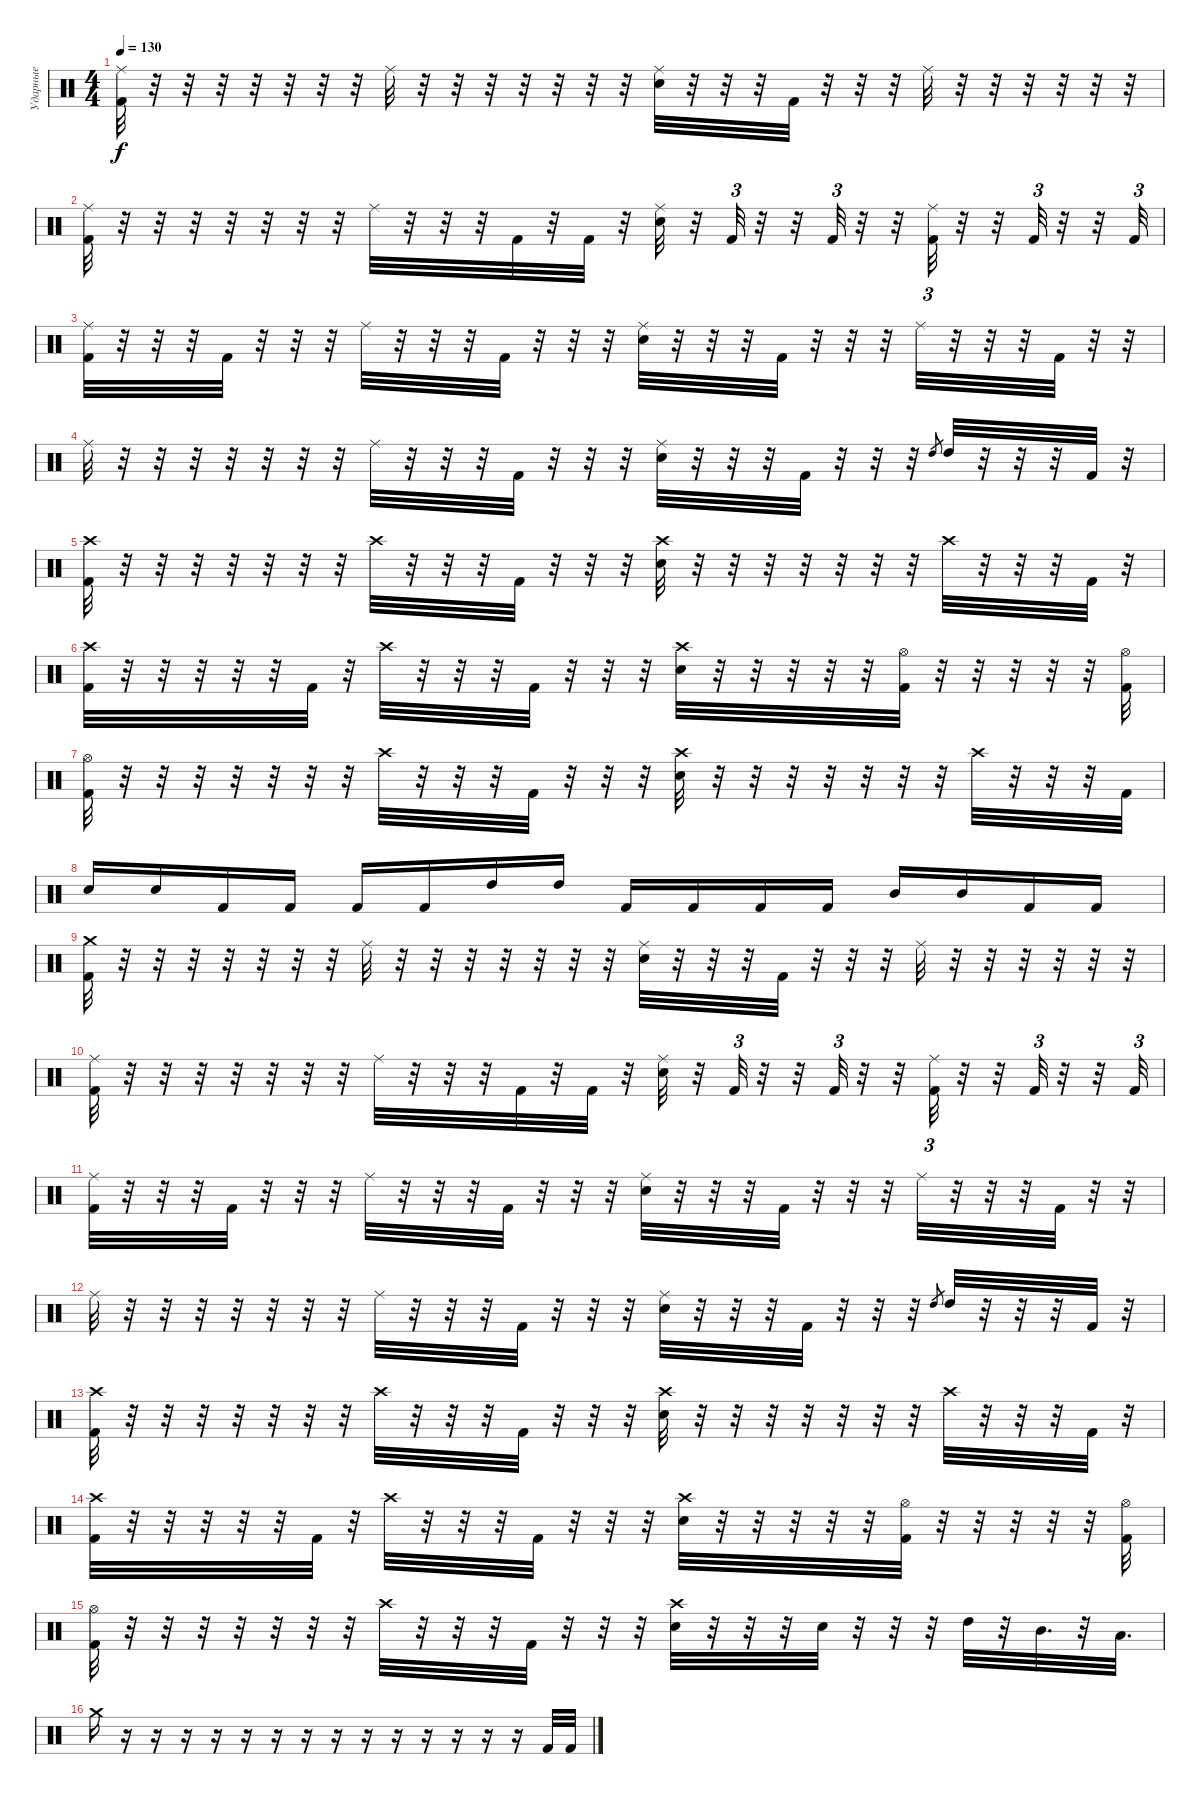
\track ("Ударные" "Ударные") {instrument percussion}
\staff {score}
\articulation defaults
\ts (4 4)
\tempo 130
\clef neutral
\ks c
("Ride (middle)" "Kick (hit) 2").32{dy f} r.32 r.32 r.32 r.32 r.32 r.32 r.32 "Ride (middle)".32 r.32 r.32 r.32 r.32 r.32 r.32 r.32 ("Ride (middle)" "Electric Snare (hit)").32 r.32 r.32 r.32 "Kick (hit) 2".32 r.32 r.32 r.32 "Ride (middle)".32 r.32 r.32 r.32 r.32 r.32 r.32 |
("Ride (middle)" "Kick (hit) 2").32 r.32 r.32 r.32 r.32 r.32 r.32 r.32 "Ride (middle)".32 r.32 r.32 r.32 "Kick (hit) 2".32 r.32 "Kick (hit) 2".32 r.32 ("Ride (middle)" "Electric Snare (hit)").32 r.32 "Kick (hit) 2".32{tu (3 2)} r.32 r.32 "Kick (hit) 2".32{tu (3 2)} r.32 r.32 ("Ride (middle)" "Kick (hit) 2").32{tu (3 2)} r.32 r.32 "Kick (hit) 2".32{tu (3 2)} r.32 r.32 "Kick (hit) 2".32{tu (3 2)} |
("Ride (middle)" "Kick (hit) 2").32 r.32 r.32 r.32 "Kick (hit) 2".32 r.32 r.32 r.32 "Ride (middle)".32 r.32 r.32 r.32 "Kick (hit) 2".32 r.32 r.32 r.32 ("Ride (middle)" "Electric Snare (hit)").32 r.32 r.32 r.32 "Kick (hit) 2".32 r.32 r.32 r.32 "Ride (middle)".32 r.32 r.32 r.32 "Kick (hit) 2".32 r.32 r.32 |
"Ride (middle)".32 r.32 r.32 r.32 r.32 r.32 r.32 r.32 "Ride (middle)".32 r.32 r.32 r.32 "Kick (hit) 2".32 r.32 r.32 r.32 ("Ride (middle)" "Electric Snare (hit)").32 r.32 r.32 r.32 "Kick (hit) 2".32 r.32 r.32 r.32 "High Tom (hit)".8{gr} "High Tom (hit)".32 r.32 r.32 r.32 "Kick (hit) 2".32 r.32 |
("Crash high (hit)" "Kick (hit) 2").32 r.32 r.32 r.32 r.32 r.32 r.32 r.32 "Crash high (hit)".32 r.32 r.32 r.32 "Kick (hit) 2".32 r.32 r.32 r.32 ("Crash high (hit)" "Electric Snare (hit)").32 r.32 r.32 r.32 r.32 r.32 r.32 r.32 "Crash high (hit)".32 r.32 r.32 r.32 "Kick (hit) 2".32 r.32 |
("Crash high (hit)" "Kick (hit) 2").32 r.32 r.32 r.32 r.32 r.32 "Kick (hit) 2".32 r.32 "Crash high (hit)".32 r.32 r.32 r.32 "Kick (hit) 2".32 r.32 r.32 r.32 ("Crash high (hit)" "Electric Snare (hit)").32 r.32 r.32 r.32 r.32 r.32 ("Hi-Hat (open)" "Kick (hit) 2").32 r.32 r.32 r.32 r.32 r.32 ("Hi-Hat (open)" "Kick (hit) 2").32 |
("Hi-Hat (open)" "Kick (hit) 2").32 r.32 r.32 r.32 r.32 r.32 r.32 r.32 "Crash high (hit)".32 r.32 r.32 r.32 "Kick (hit) 2".32 r.32 r.32 r.32 ("Crash high (hit)" "Electric Snare (hit)").32 r.32 r.32 r.32 r.32 r.32 r.32 r.32 "Crash high (hit)".32 r.32 r.32 r.32 "Kick (hit) 2".32 |
"Electric Snare (hit)".16 "Electric Snare (hit)".16 "Kick (hit) 2".16 "Kick (hit) 2".16 "Kick (hit) 2".16 "Kick (hit) 2".16 "High Tom (hit)".16 "High Tom (hit)".16 "Kick (hit) 2".16 "Kick (hit) 2".16 "Kick (hit) 2".16 "Kick (hit) 2".16 "Mid Tom (hit)".16 "Mid Tom (hit)".16 "Kick (hit) 2".16 "Kick (hit) 2".16 |
("Crash medium (hit)" "Kick (hit) 2").32 r.32 r.32 r.32 r.32 r.32 r.32 r.32 "Ride (middle)".32 r.32 r.32 r.32 r.32 r.32 r.32 r.32 ("Ride (middle)" "Electric Snare (hit)").32 r.32 r.32 r.32 "Kick (hit) 2".32 r.32 r.32 r.32 "Ride (middle)".32 r.32 r.32 r.32 r.32 r.32 r.32 |
("Ride (middle)" "Kick (hit) 2").32 r.32 r.32 r.32 r.32 r.32 r.32 r.32 "Ride (middle)".32 r.32 r.32 r.32 "Kick (hit) 2".32 r.32 "Kick (hit) 2".32 r.32 ("Ride (middle)" "Electric Snare (hit)").32 r.32 "Kick (hit) 2".32{tu (3 2)} r.32 r.32 "Kick (hit) 2".32{tu (3 2)} r.32 r.32 ("Ride (middle)" "Kick (hit) 2").32{tu (3 2)} r.32 r.32 "Kick (hit) 2".32{tu (3 2)} r.32 r.32 "Kick (hit) 2".32{tu (3 2)} |
("Ride (middle)" "Kick (hit) 2").32 r.32 r.32 r.32 "Kick (hit) 2".32 r.32 r.32 r.32 "Ride (middle)".32 r.32 r.32 r.32 "Kick (hit) 2".32 r.32 r.32 r.32 ("Ride (middle)" "Electric Snare (hit)").32 r.32 r.32 r.32 "Kick (hit) 2".32 r.32 r.32 r.32 "Ride (middle)".32 r.32 r.32 r.32 "Kick (hit) 2".32 r.32 r.32 |
"Ride (middle)".32 r.32 r.32 r.32 r.32 r.32 r.32 r.32 "Ride (middle)".32 r.32 r.32 r.32 "Kick (hit) 2".32 r.32 r.32 r.32 ("Ride (middle)" "Electric Snare (hit)").32 r.32 r.32 r.32 "Kick (hit) 2".32 r.32 r.32 r.32 "High Tom (hit)".8{gr} "High Tom (hit)".32 r.32 r.32 r.32 "Kick (hit) 2".32 r.32 |
("Crash high (hit)" "Kick (hit) 2").32 r.32 r.32 r.32 r.32 r.32 r.32 r.32 "Crash high (hit)".32 r.32 r.32 r.32 "Kick (hit) 2".32 r.32 r.32 r.32 ("Crash high (hit)" "Electric Snare (hit)").32 r.32 r.32 r.32 r.32 r.32 r.32 r.32 "Crash high (hit)".32 r.32 r.32 r.32 "Kick (hit) 2".32 r.32 |
("Crash high (hit)" "Kick (hit) 2").32 r.32 r.32 r.32 r.32 r.32 "Kick (hit) 2".32 r.32 "Crash high (hit)".32 r.32 r.32 r.32 "Kick (hit) 2".32 r.32 r.32 r.32 ("Crash high (hit)" "Electric Snare (hit)").32 r.32 r.32 r.32 r.32 r.32 ("Hi-Hat (open)" "Kick (hit) 2").32 r.32 r.32 r.32 r.32 r.32 ("Hi-Hat (open)" "Kick (hit) 2").32 |
("Hi-Hat (open)" "Kick (hit) 2").32 r.32 r.32 r.32 r.32 r.32 r.32 r.32 "Crash high (hit)".32 r.32 r.32 r.32 "Kick (hit) 2".32 r.32 r.32 r.32 ("Crash high (hit)" "Electric Snare (hit)").32 r.32 r.32 r.32 "Electric Snare (hit)".32 r.32 r.32 r.32 "High Tom (hit)".32 r.32 "Mid Tom (hit)".32{d} r.32 "Low Tom (hit)".32{d} |
"Crash medium (hit)".16 r.16 r.16 r.16 r.16 r.16 r.16 r.16 r.16 r.16 r.16 r.16 r.16 r.16 r.16 "Kick (hit) 2".32 "Kick (hit) 2".32
